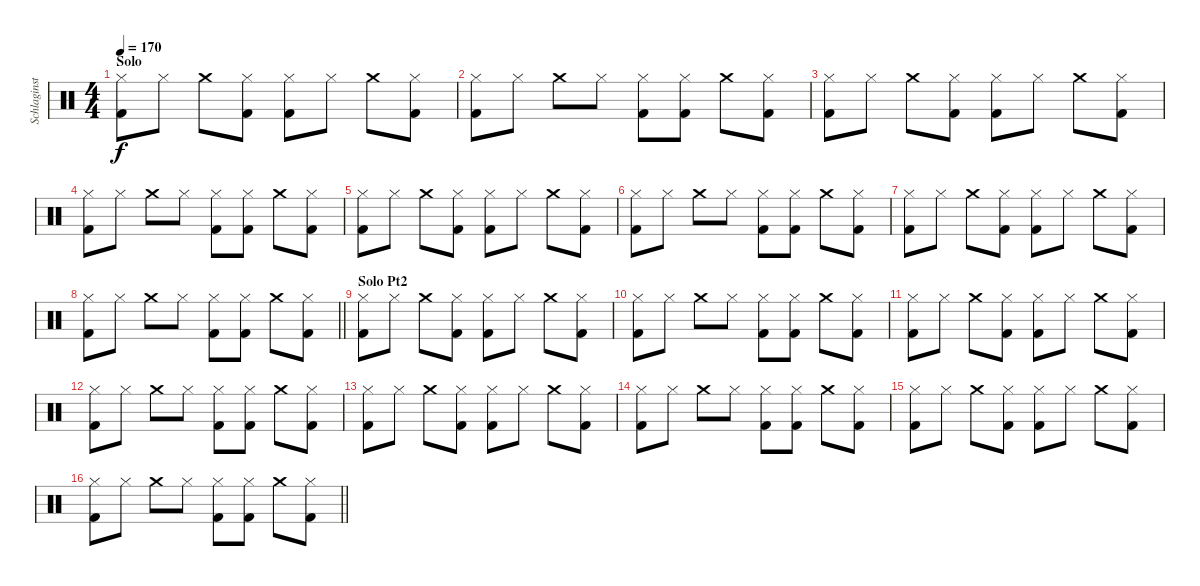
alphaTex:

\track ("Schlaginstrumente - Auswahl" "Schlaginst") {instrument percussion}
\staff {score}
\articulation defaults
\ts (4 4)
\section ("" "Solo")
\tempo 170
\clef neutral
\ks c
("Hi-Hat (closed)" "Kick (hit) 2").8{dy f} "Hi-Hat (closed)".8 "Crash medium (hit)".8 ("Hi-Hat (closed)" "Kick (hit) 2").8 ("Hi-Hat (closed)" "Kick (hit) 2").8 "Hi-Hat (closed)".8 "Crash medium (hit)".8 ("Hi-Hat (closed)" "Kick (hit) 2").8 |
("Hi-Hat (closed)" "Kick (hit) 2").8 "Hi-Hat (closed)".8 "Crash medium (hit)".8 "Hi-Hat (closed)".8 ("Hi-Hat (closed)" "Kick (hit) 2").8 ("Hi-Hat (closed)" "Kick (hit) 2").8 "Crash medium (hit)".8 ("Hi-Hat (closed)" "Kick (hit) 2").8 |
("Hi-Hat (closed)" "Kick (hit) 2").8 "Hi-Hat (closed)".8 "Crash medium (hit)".8 ("Hi-Hat (closed)" "Kick (hit) 2").8 ("Hi-Hat (closed)" "Kick (hit) 2").8 "Hi-Hat (closed)".8 "Crash medium (hit)".8 ("Hi-Hat (closed)" "Kick (hit) 2").8 |
("Hi-Hat (closed)" "Kick (hit) 2").8 "Hi-Hat (closed)".8 "Crash medium (hit)".8 "Hi-Hat (closed)".8 ("Hi-Hat (closed)" "Kick (hit) 2").8 ("Hi-Hat (closed)" "Kick (hit) 2").8 "Crash medium (hit)".8 ("Hi-Hat (closed)" "Kick (hit) 2").8 |
("Hi-Hat (closed)" "Kick (hit) 2").8 "Hi-Hat (closed)".8 "Crash medium (hit)".8 ("Hi-Hat (closed)" "Kick (hit) 2").8 ("Hi-Hat (closed)" "Kick (hit) 2").8 "Hi-Hat (closed)".8 "Crash medium (hit)".8 ("Hi-Hat (closed)" "Kick (hit) 2").8 |
("Hi-Hat (closed)" "Kick (hit) 2").8 "Hi-Hat (closed)".8 "Crash medium (hit)".8 "Hi-Hat (closed)".8 ("Hi-Hat (closed)" "Kick (hit) 2").8 ("Hi-Hat (closed)" "Kick (hit) 2").8 "Crash medium (hit)".8 ("Hi-Hat (closed)" "Kick (hit) 2").8 |
("Hi-Hat (closed)" "Kick (hit) 2").8 "Hi-Hat (closed)".8 "Crash medium (hit)".8 ("Hi-Hat (closed)" "Kick (hit) 2").8 ("Hi-Hat (closed)" "Kick (hit) 2").8 "Hi-Hat (closed)".8 "Crash medium (hit)".8 ("Hi-Hat (closed)" "Kick (hit) 2").8 |
\barLineRight lightlight
("Hi-Hat (closed)" "Kick (hit) 2").8 "Hi-Hat (closed)".8 "Crash medium (hit)".8 "Hi-Hat (closed)".8 ("Hi-Hat (closed)" "Kick (hit) 2").8 ("Hi-Hat (closed)" "Kick (hit) 2").8 "Crash medium (hit)".8 ("Hi-Hat (closed)" "Kick (hit) 2").8 |
\section ("" "Solo Pt2")
("Hi-Hat (closed)" "Kick (hit) 2").8 "Hi-Hat (closed)".8 "Crash medium (hit)".8 ("Hi-Hat (closed)" "Kick (hit) 2").8 ("Hi-Hat (closed)" "Kick (hit) 2").8 "Hi-Hat (closed)".8 "Crash medium (hit)".8 ("Hi-Hat (closed)" "Kick (hit) 2").8 |
("Hi-Hat (closed)" "Kick (hit) 2").8 "Hi-Hat (closed)".8 "Crash medium (hit)".8 "Hi-Hat (closed)".8 ("Hi-Hat (closed)" "Kick (hit) 2").8 ("Hi-Hat (closed)" "Kick (hit) 2").8 "Crash medium (hit)".8 ("Hi-Hat (closed)" "Kick (hit) 2").8 |
("Hi-Hat (closed)" "Kick (hit) 2").8 "Hi-Hat (closed)".8 "Crash medium (hit)".8 ("Hi-Hat (closed)" "Kick (hit) 2").8 ("Hi-Hat (closed)" "Kick (hit) 2").8 "Hi-Hat (closed)".8 "Crash medium (hit)".8 ("Hi-Hat (closed)" "Kick (hit) 2").8 |
("Hi-Hat (closed)" "Kick (hit) 2").8 "Hi-Hat (closed)".8 "Crash medium (hit)".8 "Hi-Hat (closed)".8 ("Hi-Hat (closed)" "Kick (hit) 2").8 ("Hi-Hat (closed)" "Kick (hit) 2").8 "Crash medium (hit)".8 ("Hi-Hat (closed)" "Kick (hit) 2").8 |
("Hi-Hat (closed)" "Kick (hit) 2").8 "Hi-Hat (closed)".8 "Crash medium (hit)".8 ("Hi-Hat (closed)" "Kick (hit) 2").8 ("Hi-Hat (closed)" "Kick (hit) 2").8 "Hi-Hat (closed)".8 "Crash medium (hit)".8 ("Hi-Hat (closed)" "Kick (hit) 2").8 |
("Hi-Hat (closed)" "Kick (hit) 2").8 "Hi-Hat (closed)".8 "Crash medium (hit)".8 "Hi-Hat (closed)".8 ("Hi-Hat (closed)" "Kick (hit) 2").8 ("Hi-Hat (closed)" "Kick (hit) 2").8 "Crash medium (hit)".8 ("Hi-Hat (closed)" "Kick (hit) 2").8 |
("Hi-Hat (closed)" "Kick (hit) 2").8 "Hi-Hat (closed)".8 "Crash medium (hit)".8 ("Hi-Hat (closed)" "Kick (hit) 2").8 ("Hi-Hat (closed)" "Kick (hit) 2").8 "Hi-Hat (closed)".8 "Crash medium (hit)".8 ("Hi-Hat (closed)" "Kick (hit) 2").8 |
\barLineRight lightlight
("Hi-Hat (closed)" "Kick (hit) 2").8 "Hi-Hat (closed)".8 "Crash medium (hit)".8 "Hi-Hat (closed)".8 ("Hi-Hat (closed)" "Kick (hit) 2").8 ("Hi-Hat (closed)" "Kick (hit) 2").8 "Crash medium (hit)".8 ("Hi-Hat (closed)" "Kick (hit) 2").8
